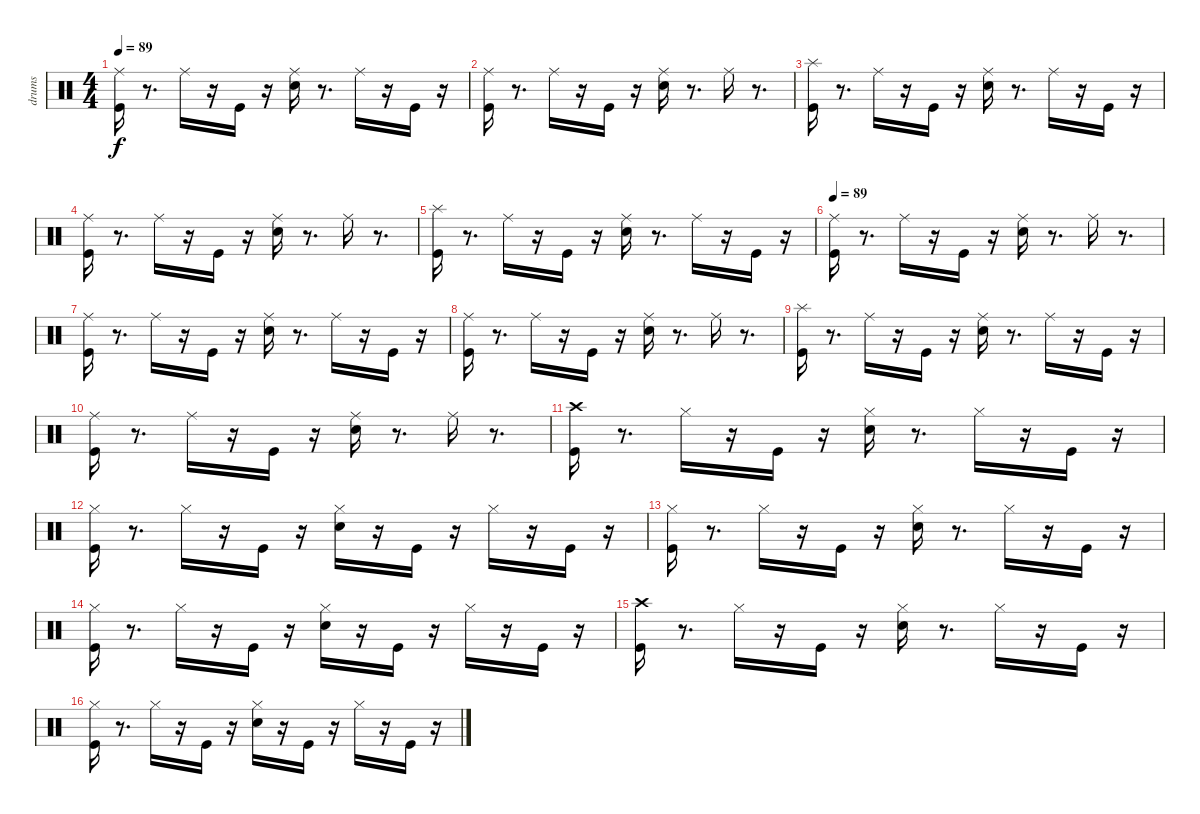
\track ("drums" "drums") {instrument percussion}
\staff {score}
\articulation defaults
\ts (4 4)
\tempo 89
\clef neutral
\ks c
("Ride (middle)" "Kick (hit)").16{dy f} r.8{d} "Ride (middle)".16 r.16 "Kick (hit)".16 r.16 ("Electric Snare (hit)" "Ride (middle)").16 r.8{d} "Ride (middle)".16 r.16 "Kick (hit)".16 r.16 |
("Ride (middle)" "Kick (hit)").16 r.8{d} "Ride (middle)".16 r.16 "Kick (hit)".16 r.16 ("Ride (middle)" "Electric Snare (hit)").16 r.8{d} "Ride (middle)".16 r.8{d} |
("Splash (hit)" "Kick (hit)").16 r.8{d} "Ride (middle)".16 r.16 "Kick (hit)".16 r.16 ("Ride (middle)" "Snare (hit) 2").16 r.8{d} "Ride (middle)".16 r.16 "Kick (hit)".16 r.16 |
("Ride (middle)" "Kick (hit)").16 r.8{d} "Ride (middle)".16 r.16 "Kick (hit)".16 r.16 ("Ride (middle)" "Electric Snare (hit)").16 r.8{d} "Ride (middle)".16 r.8{d} |
("Splash (hit)" "Kick (hit)").16 r.8{d} "Ride (middle)".16 r.16 "Kick (hit)".16 r.16 ("Ride (middle)" "Electric Snare (hit)").16 r.8{d} "Ride (middle)".16 r.16 "Kick (hit)".16 r.16 |
\tempo 89
("Ride (middle)" "Kick (hit)").16 r.8{d} "Ride (middle)".16 r.16 "Kick (hit)".16 r.16 ("Ride (middle)" "Electric Snare (hit)").16 r.8{d} "Ride (middle)".16 r.8{d} |
("Ride (middle)" "Kick (hit)").16 r.8{d} "Ride (middle)".16 r.16 "Kick (hit)".16 r.16 ("Electric Snare (hit)" "Ride (middle)").16 r.8{d} "Ride (middle)".16 r.16 "Kick (hit)".16 r.16 |
("Ride (middle)" "Kick (hit)").16 r.8{d} "Ride (middle)".16 r.16 "Kick (hit)".16 r.16 ("Ride (middle)" "Electric Snare (hit)").16 r.8{d} "Ride (middle)".16 r.8{d} |
("Splash (hit)" "Kick (hit)").16 r.8{d} "Ride (middle)".16 r.16 "Kick (hit)".16 r.16 ("Electric Snare (hit)" "Ride (middle)").16 r.8{d} "Ride (middle)".16 r.16 "Kick (hit)".16 r.16 |
("Ride (middle)" "Kick (hit)").16 r.8{d} "Ride (middle)".16 r.16 "Kick (hit)".16 r.16 ("Electric Snare (hit)" "Ride (middle)").16 r.8{d} "Ride (middle)".16 r.8{d} |
("Crash high (hit)" "Kick (hit)").16 r.8{d} "Hi-Hat (closed)".16 r.16 "Kick (hit)".16 r.16 ("Hi-Hat (closed)" "Electric Snare (hit)").16 r.8{d} "Hi-Hat (closed)".16 r.16 "Kick (hit)".16 r.16 |
("Hi-Hat (closed)" "Kick (hit)").16 r.8{d} "Hi-Hat (closed)".16 r.16 "Kick (hit)".16 r.16 ("Hi-Hat (closed)" "Electric Snare (hit)").16 r.16 "Kick (hit)".16 r.16 "Hi-Hat (closed)".16 r.16 "Kick (hit)".16 r.16 |
("Hi-Hat (closed)" "Kick (hit)").16 r.8{d} "Hi-Hat (closed)".16 r.16 "Kick (hit)".16 r.16 ("Hi-Hat (closed)" "Electric Snare (hit)").16 r.8{d} "Hi-Hat (closed)".16 r.16 "Kick (hit)".16 r.16 |
("Hi-Hat (closed)" "Kick (hit)").16 r.8{d} "Hi-Hat (closed)".16 r.16 "Kick (hit)".16 r.16 ("Hi-Hat (closed)" "Electric Snare (hit)").16 r.16 "Kick (hit)".16 r.16 "Hi-Hat (closed)".16 r.16 "Kick (hit)".16 r.16 |
("Crash high (hit)" "Kick (hit)").16 r.8{d} "Hi-Hat (closed)".16 r.16 "Kick (hit)".16 r.16 ("Hi-Hat (closed)" "Electric Snare (hit)").16 r.8{d} "Hi-Hat (closed)".16 r.16 "Kick (hit)".16 r.16 |
("Hi-Hat (closed)" "Kick (hit)").16 r.8{d} "Hi-Hat (closed)".16 r.16 "Kick (hit)".16 r.16 ("Hi-Hat (closed)" "Electric Snare (hit)").16 r.16 "Kick (hit)".16 r.16 "Hi-Hat (closed)".16 r.16 "Kick (hit)".16 r.16
